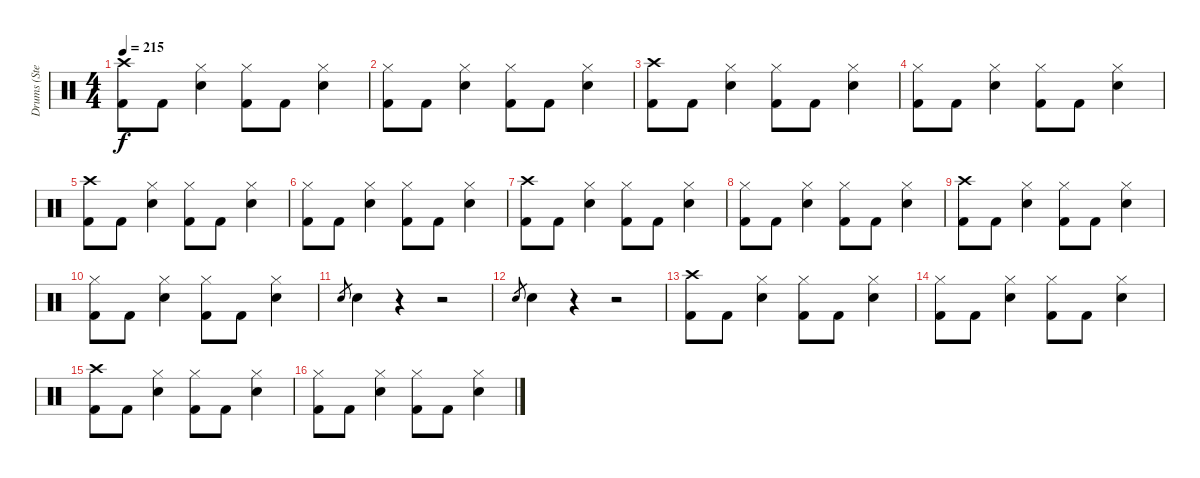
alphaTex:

\track ("Drums (Steven)" "Drums (Ste") {instrument percussion}
\staff {score}
\articulation defaults
\ts (4 4)
\tempo 215
\clef neutral
\ks c
("Crash high (hit)" "Kick (hit) 2").8{dy f} "Kick (hit) 2".8 ("Hi-Hat (closed)" "Snare (hit) 2").4 ("Hi-Hat (closed)" "Kick (hit) 2").8 "Kick (hit) 2".8 ("Hi-Hat (closed)" "Snare (hit) 2").4 |
("Hi-Hat (closed)" "Kick (hit) 2").8 "Kick (hit) 2".8 ("Hi-Hat (closed)" "Snare (hit) 2").4 ("Hi-Hat (closed)" "Kick (hit) 2").8 "Kick (hit) 2".8 ("Hi-Hat (closed)" "Snare (hit) 2").4 |
("Crash high (hit)" "Kick (hit) 2").8 "Kick (hit) 2".8 ("Hi-Hat (closed)" "Snare (hit) 2").4 ("Hi-Hat (closed)" "Kick (hit) 2").8 "Kick (hit) 2".8 ("Hi-Hat (closed)" "Snare (hit) 2").4 |
("Hi-Hat (closed)" "Kick (hit) 2").8 "Kick (hit) 2".8 ("Hi-Hat (closed)" "Snare (hit) 2").4 ("Hi-Hat (closed)" "Kick (hit) 2").8 "Kick (hit) 2".8 ("Hi-Hat (closed)" "Snare (hit) 2").4 |
("Crash high (hit)" "Kick (hit) 2").8 "Kick (hit) 2".8 ("Hi-Hat (closed)" "Snare (hit) 2").4 ("Hi-Hat (closed)" "Kick (hit) 2").8 "Kick (hit) 2".8 ("Hi-Hat (closed)" "Snare (hit) 2").4 |
("Hi-Hat (closed)" "Kick (hit) 2").8 "Kick (hit) 2".8 ("Hi-Hat (closed)" "Snare (hit) 2").4 ("Hi-Hat (closed)" "Kick (hit) 2").8 "Kick (hit) 2".8 ("Hi-Hat (closed)" "Snare (hit) 2").4 |
("Crash high (hit)" "Kick (hit) 2").8 "Kick (hit) 2".8 ("Hi-Hat (closed)" "Snare (hit) 2").4 ("Hi-Hat (closed)" "Kick (hit) 2").8 "Kick (hit) 2".8 ("Hi-Hat (closed)" "Snare (hit) 2").4 |
("Hi-Hat (closed)" "Kick (hit) 2").8 "Kick (hit) 2".8 ("Hi-Hat (closed)" "Snare (hit) 2").4 ("Hi-Hat (closed)" "Kick (hit) 2").8 "Kick (hit) 2".8 ("Hi-Hat (closed)" "Snare (hit) 2").4 |
("Crash high (hit)" "Kick (hit) 2").8 "Kick (hit) 2".8 ("Hi-Hat (closed)" "Snare (hit) 2").4 ("Hi-Hat (closed)" "Kick (hit) 2").8 "Kick (hit) 2".8 ("Hi-Hat (closed)" "Snare (hit) 2").4 |
("Hi-Hat (closed)" "Kick (hit) 2").8 "Kick (hit) 2".8 ("Hi-Hat (closed)" "Snare (hit) 2").4 ("Hi-Hat (closed)" "Kick (hit) 2").8 "Kick (hit) 2".8 ("Hi-Hat (closed)" "Snare (hit) 2").4 |
"Snare (hit) 2".8{gr} "Snare (hit) 2".4 r.4 r.2 |
"Snare (hit) 2".8{gr} "Snare (hit) 2".4 r.4 r.2 |
("Crash high (hit)" "Kick (hit) 2").8 "Kick (hit) 2".8 ("Hi-Hat (closed)" "Snare (hit) 2").4 ("Hi-Hat (closed)" "Kick (hit) 2").8 "Kick (hit) 2".8 ("Hi-Hat (closed)" "Snare (hit) 2").4 |
("Hi-Hat (closed)" "Kick (hit) 2").8 "Kick (hit) 2".8 ("Hi-Hat (closed)" "Snare (hit) 2").4 ("Hi-Hat (closed)" "Kick (hit) 2").8 "Kick (hit) 2".8 ("Hi-Hat (closed)" "Snare (hit) 2").4 |
("Crash high (hit)" "Kick (hit) 2").8 "Kick (hit) 2".8 ("Hi-Hat (closed)" "Snare (hit) 2").4 ("Hi-Hat (closed)" "Kick (hit) 2").8 "Kick (hit) 2".8 ("Hi-Hat (closed)" "Snare (hit) 2").4 |
("Hi-Hat (closed)" "Kick (hit) 2").8 "Kick (hit) 2".8 ("Hi-Hat (closed)" "Snare (hit) 2").4 ("Hi-Hat (closed)" "Kick (hit) 2").8 "Kick (hit) 2".8 ("Hi-Hat (closed)" "Snare (hit) 2").4
